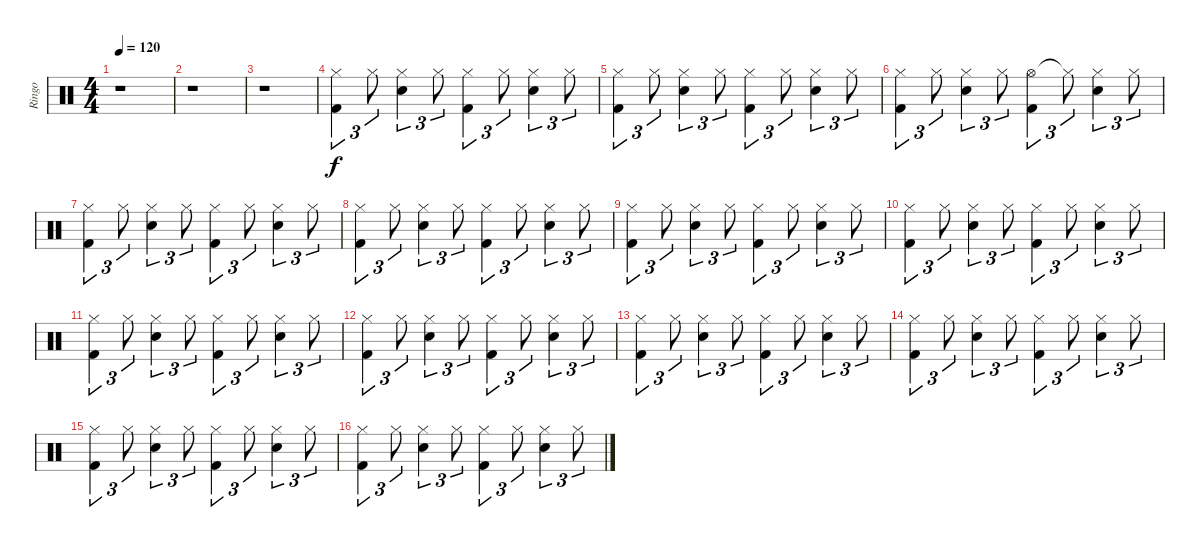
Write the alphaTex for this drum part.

\track ("Ringo" "Ringo") {instrument percussion}
\staff {score}
\articulation defaults
\ts (4 4)
\tempo 120
\clef neutral
\ks c
r.1{dy f} |
r.1 |
r.1 |
("Hi-Hat (closed)" "Kick (hit) 2").4{tu (3 2)} "Hi-Hat (closed)".8{tu (3 2)} ("Hi-Hat (closed)" "Snare (hit) 2").4{tu (3 2)} "Hi-Hat (closed)".8{tu (3 2)} ("Hi-Hat (closed)" "Kick (hit) 2").4{tu (3 2)} "Hi-Hat (closed)".8{tu (3 2)} ("Hi-Hat (closed)" "Snare (hit) 2").4{tu (3 2)} "Hi-Hat (closed)".8{tu (3 2)} |
("Hi-Hat (closed)" "Kick (hit) 2").4{tu (3 2)} "Hi-Hat (closed)".8{tu (3 2)} ("Hi-Hat (closed)" "Snare (hit) 2").4{tu (3 2)} "Hi-Hat (closed)".8{tu (3 2)} ("Hi-Hat (closed)" "Kick (hit) 2").4{tu (3 2)} "Hi-Hat (closed)".8{tu (3 2)} ("Hi-Hat (closed)" "Snare (hit) 2").4{tu (3 2)} "Hi-Hat (closed)".8{tu (3 2)} |
("Hi-Hat (closed)" "Kick (hit) 2").4{tu (3 2)} "Hi-Hat (closed)".8{tu (3 2)} ("Hi-Hat (closed)" "Snare (hit) 2").4{tu (3 2)} "Hi-Hat (closed)".8{tu (3 2)} ("Hi-Hat (open)" "Kick (hit) 2").4{tu (3 2)} "Hi-Hat (closed)"{t}.8{tu (3 2)} ("Hi-Hat (closed)" "Snare (hit) 2").4{tu (3 2)} "Hi-Hat (closed)".8{tu (3 2)} |
("Hi-Hat (closed)" "Kick (hit) 2").4{tu (3 2)} "Hi-Hat (closed)".8{tu (3 2)} ("Hi-Hat (closed)" "Snare (hit) 2").4{tu (3 2)} "Hi-Hat (closed)".8{tu (3 2)} ("Hi-Hat (closed)" "Kick (hit) 2").4{tu (3 2)} "Hi-Hat (closed)".8{tu (3 2)} ("Hi-Hat (closed)" "Snare (hit) 2").4{tu (3 2)} "Hi-Hat (closed)".8{tu (3 2)} |
("Hi-Hat (closed)" "Kick (hit) 2").4{tu (3 2)} "Hi-Hat (closed)".8{tu (3 2)} ("Hi-Hat (closed)" "Snare (hit) 2").4{tu (3 2)} "Hi-Hat (closed)".8{tu (3 2)} ("Hi-Hat (closed)" "Kick (hit) 2").4{tu (3 2)} "Hi-Hat (closed)".8{tu (3 2)} ("Hi-Hat (closed)" "Snare (hit) 2").4{tu (3 2)} "Hi-Hat (closed)".8{tu (3 2)} |
("Hi-Hat (closed)" "Kick (hit) 2").4{tu (3 2)} "Hi-Hat (closed)".8{tu (3 2)} ("Hi-Hat (closed)" "Snare (hit) 2").4{tu (3 2)} "Hi-Hat (closed)".8{tu (3 2)} ("Hi-Hat (closed)" "Kick (hit) 2").4{tu (3 2)} "Hi-Hat (closed)".8{tu (3 2)} ("Hi-Hat (closed)" "Snare (hit) 2").4{tu (3 2)} "Hi-Hat (closed)".8{tu (3 2)} |
("Hi-Hat (closed)" "Kick (hit) 2").4{tu (3 2)} "Hi-Hat (closed)".8{tu (3 2)} ("Hi-Hat (closed)" "Snare (hit) 2").4{tu (3 2)} "Hi-Hat (closed)".8{tu (3 2)} ("Hi-Hat (closed)" "Kick (hit) 2").4{tu (3 2)} "Hi-Hat (closed)".8{tu (3 2)} ("Hi-Hat (closed)" "Snare (hit) 2").4{tu (3 2)} "Hi-Hat (closed)".8{tu (3 2)} |
("Hi-Hat (closed)" "Kick (hit) 2").4{tu (3 2)} "Hi-Hat (closed)".8{tu (3 2)} ("Hi-Hat (closed)" "Snare (hit) 2").4{tu (3 2)} "Hi-Hat (closed)".8{tu (3 2)} ("Hi-Hat (closed)" "Kick (hit) 2").4{tu (3 2)} "Hi-Hat (closed)".8{tu (3 2)} ("Hi-Hat (closed)" "Snare (hit) 2").4{tu (3 2)} "Hi-Hat (closed)".8{tu (3 2)} |
("Hi-Hat (closed)" "Kick (hit) 2").4{tu (3 2)} "Hi-Hat (closed)".8{tu (3 2)} ("Hi-Hat (closed)" "Snare (hit) 2").4{tu (3 2)} "Hi-Hat (closed)".8{tu (3 2)} ("Hi-Hat (closed)" "Kick (hit) 2").4{tu (3 2)} "Hi-Hat (closed)".8{tu (3 2)} ("Hi-Hat (closed)" "Snare (hit) 2").4{tu (3 2)} "Hi-Hat (closed)".8{tu (3 2)} |
("Hi-Hat (closed)" "Kick (hit) 2").4{tu (3 2)} "Hi-Hat (closed)".8{tu (3 2)} ("Hi-Hat (closed)" "Snare (hit) 2").4{tu (3 2)} "Hi-Hat (closed)".8{tu (3 2)} ("Hi-Hat (closed)" "Kick (hit) 2").4{tu (3 2)} "Hi-Hat (closed)".8{tu (3 2)} ("Hi-Hat (closed)" "Snare (hit) 2").4{tu (3 2)} "Hi-Hat (closed)".8{tu (3 2)} |
("Hi-Hat (closed)" "Kick (hit) 2").4{tu (3 2)} "Hi-Hat (closed)".8{tu (3 2)} ("Hi-Hat (closed)" "Snare (hit) 2").4{tu (3 2)} "Hi-Hat (closed)".8{tu (3 2)} ("Hi-Hat (closed)" "Kick (hit) 2").4{tu (3 2)} "Hi-Hat (closed)".8{tu (3 2)} ("Hi-Hat (closed)" "Snare (hit) 2").4{tu (3 2)} "Hi-Hat (closed)".8{tu (3 2)} |
("Hi-Hat (closed)" "Kick (hit) 2").4{tu (3 2)} "Hi-Hat (closed)".8{tu (3 2)} ("Hi-Hat (closed)" "Snare (hit) 2").4{tu (3 2)} "Hi-Hat (closed)".8{tu (3 2)} ("Hi-Hat (closed)" "Kick (hit) 2").4{tu (3 2)} "Hi-Hat (closed)".8{tu (3 2)} ("Hi-Hat (closed)" "Snare (hit) 2").4{tu (3 2)} "Hi-Hat (closed)".8{tu (3 2)} |
("Hi-Hat (closed)" "Kick (hit) 2").4{tu (3 2)} "Hi-Hat (closed)".8{tu (3 2)} ("Hi-Hat (closed)" "Snare (hit) 2").4{tu (3 2)} "Hi-Hat (closed)".8{tu (3 2)} ("Hi-Hat (closed)" "Kick (hit) 2").4{tu (3 2)} "Hi-Hat (closed)".8{tu (3 2)} ("Hi-Hat (closed)" "Snare (hit) 2").4{tu (3 2)} "Hi-Hat (closed)".8{tu (3 2)}
